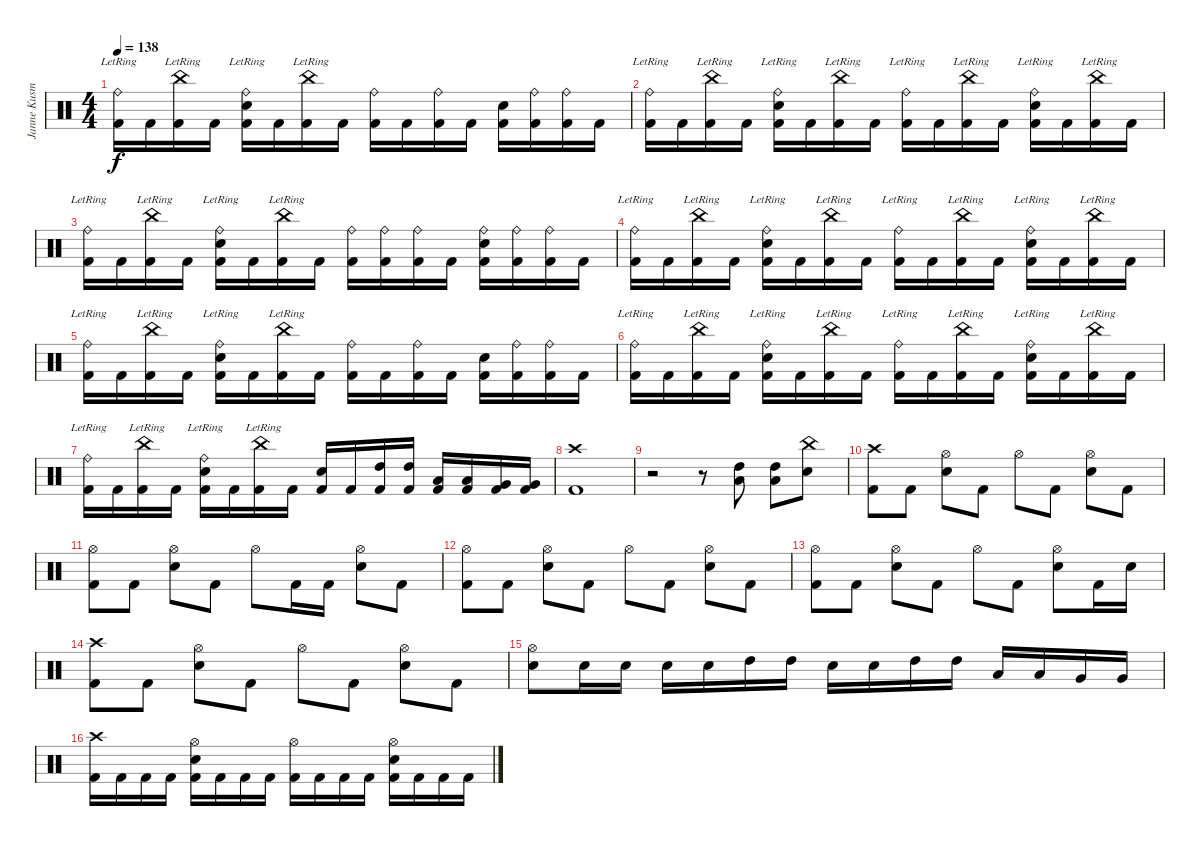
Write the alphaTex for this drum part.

\track ("Janne Kusmin" "Janne Kusm") {instrument percussion}
\staff {score}
\articulation defaults
\ts (4 4)
\tempo 138
\clef neutral
\ks c
("Ride (bell)"{lr} "Kick (hit) 2").16{dy f} "Kick (hit) 2".16 ("China (hit)"{lr} "Kick (hit) 2").16 "Kick (hit) 2".16 ("Ride (bell)"{lr} "Electric Snare (hit)" "Kick (hit) 2").16 "Kick (hit) 2".16 ("China (hit)"{lr} "Kick (hit) 2").16 "Kick (hit) 2".16 ("Ride (bell)" "Kick (hit) 2").16 "Kick (hit) 2".16 ("Ride (bell)" "Kick (hit) 2").16 "Kick (hit) 2".16 ("Electric Snare (hit)" "Kick (hit) 2").16 ("Ride (bell)" "Kick (hit) 2").16 ("Ride (bell)" "Kick (hit) 2").16 "Kick (hit) 2".16 |
("Ride (bell)"{lr} "Kick (hit) 2").16 "Kick (hit) 2".16 ("China (hit)"{lr} "Kick (hit) 2").16 "Kick (hit) 2".16 ("Ride (bell)"{lr} "Electric Snare (hit)" "Kick (hit) 2").16 "Kick (hit) 2".16 ("China (hit)"{lr} "Kick (hit) 2").16 "Kick (hit) 2".16 ("Ride (bell)"{lr} "Kick (hit) 2").16 "Kick (hit) 2".16 ("China (hit)"{lr} "Kick (hit) 2").16 "Kick (hit) 2".16 ("Ride (bell)"{lr} "Electric Snare (hit)" "Kick (hit) 2").16 "Kick (hit) 2".16 ("China (hit)"{lr} "Kick (hit) 2").16 "Kick (hit) 2".16 |
("Ride (bell)"{lr} "Kick (hit) 2").16 "Kick (hit) 2".16 ("China (hit)"{lr} "Kick (hit) 2").16 "Kick (hit) 2".16 ("Ride (bell)"{lr} "Electric Snare (hit)" "Kick (hit) 2").16 "Kick (hit) 2".16 ("China (hit)"{lr} "Kick (hit) 2").16 "Kick (hit) 2".16 ("Ride (bell)" "Kick (hit) 2").16 ("Ride (bell)" "Kick (hit) 2").16 ("Ride (bell)" "Kick (hit) 2").16 "Kick (hit) 2".16 ("Ride (bell)" "Electric Snare (hit)" "Kick (hit) 2").16 ("Ride (bell)" "Kick (hit) 2").16 ("Ride (bell)" "Kick (hit) 2").16 "Kick (hit) 2".16 |
("Ride (bell)"{lr} "Kick (hit) 2").16 "Kick (hit) 2".16 ("China (hit)"{lr} "Kick (hit) 2").16 "Kick (hit) 2".16 ("Ride (bell)"{lr} "Electric Snare (hit)" "Kick (hit) 2").16 "Kick (hit) 2".16 ("China (hit)"{lr} "Kick (hit) 2").16 "Kick (hit) 2".16 ("Ride (bell)"{lr} "Kick (hit) 2").16 "Kick (hit) 2".16 ("China (hit)"{lr} "Kick (hit) 2").16 "Kick (hit) 2".16 ("Ride (bell)"{lr} "Electric Snare (hit)" "Kick (hit) 2").16 "Kick (hit) 2".16 ("China (hit)"{lr} "Kick (hit) 2").16 "Kick (hit) 2".16 |
("Ride (bell)"{lr} "Kick (hit) 2").16 "Kick (hit) 2".16 ("China (hit)"{lr} "Kick (hit) 2").16 "Kick (hit) 2".16 ("Ride (bell)"{lr} "Electric Snare (hit)" "Kick (hit) 2").16 "Kick (hit) 2".16 ("China (hit)"{lr} "Kick (hit) 2").16 "Kick (hit) 2".16 ("Ride (bell)" "Kick (hit) 2").16 "Kick (hit) 2".16 ("Ride (bell)" "Kick (hit) 2").16 "Kick (hit) 2".16 ("Electric Snare (hit)" "Kick (hit) 2").16 ("Ride (bell)" "Kick (hit) 2").16 ("Ride (bell)" "Kick (hit) 2").16 "Kick (hit) 2".16 |
("Ride (bell)"{lr} "Kick (hit) 2").16 "Kick (hit) 2".16 ("China (hit)"{lr} "Kick (hit) 2").16 "Kick (hit) 2".16 ("Ride (bell)"{lr} "Electric Snare (hit)" "Kick (hit) 2").16 "Kick (hit) 2".16 ("China (hit)"{lr} "Kick (hit) 2").16 "Kick (hit) 2".16 ("Ride (bell)"{lr} "Kick (hit) 2").16 "Kick (hit) 2".16 ("China (hit)"{lr} "Kick (hit) 2").16 "Kick (hit) 2".16 ("Ride (bell)"{lr} "Electric Snare (hit)" "Kick (hit) 2").16 "Kick (hit) 2".16 ("China (hit)"{lr} "Kick (hit) 2").16 "Kick (hit) 2".16 |
("Ride (bell)"{lr} "Kick (hit) 2").16 "Kick (hit) 2".16 ("China (hit)"{lr} "Kick (hit) 2").16 "Kick (hit) 2".16 ("Ride (bell)"{lr} "Electric Snare (hit)" "Kick (hit) 2").16 "Kick (hit) 2".16 ("China (hit)"{lr} "Kick (hit) 2").16 "Kick (hit) 2".16 ("Electric Snare (hit)" "Kick (hit) 2").16 "Kick (hit) 2".16 ("High Tom (hit)" "Kick (hit) 2").16 ("High Tom (hit)" "Kick (hit) 2").16 ("Low Tom (hit)" "Kick (hit) 2").16 ("Low Tom (hit)" "Kick (hit) 2").16 ("Very Low Tom (hit)" "Kick (hit) 2").16 ("Very Low Tom (hit)" "Kick (hit) 2").16 |
("Crash high (hit)" "Kick (hit) 2").1 |
r.2 r.8 ("High Tom (hit)" "Low Floor Tom (hit)").8 ("High Tom (hit)" "Low Floor Tom (hit)").8 ("China (hit)" "Electric Snare (hit)").8 |
("Crash high (hit)" "Kick (hit) 2").8 "Kick (hit) 2".8 ("Hi-Hat (open)" "Electric Snare (hit)").8 "Kick (hit) 2".8 "Hi-Hat (open)".8 "Kick (hit) 2".8 ("Hi-Hat (open)" "Electric Snare (hit)").8 "Kick (hit) 2".8 |
("Hi-Hat (open)" "Kick (hit) 2").8 "Kick (hit) 2".8 ("Hi-Hat (open)" "Electric Snare (hit)").8 "Kick (hit) 2".8 "Hi-Hat (open)".8 "Kick (hit) 2".16 "Kick (hit) 2".16 ("Hi-Hat (open)" "Electric Snare (hit)").8 "Kick (hit) 2".8 |
("Hi-Hat (open)" "Kick (hit) 2").8 "Kick (hit) 2".8 ("Hi-Hat (open)" "Electric Snare (hit)").8 "Kick (hit) 2".8 "Hi-Hat (open)".8 "Kick (hit) 2".8 ("Hi-Hat (open)" "Electric Snare (hit)").8 "Kick (hit) 2".8 |
("Hi-Hat (open)" "Kick (hit) 2").8 "Kick (hit) 2".8 ("Hi-Hat (open)" "Electric Snare (hit)").8 "Kick (hit) 2".8 "Hi-Hat (open)".8 "Kick (hit) 2".8 ("Hi-Hat (open)" "Electric Snare (hit)").8 "Kick (hit) 2".16 "Electric Snare (hit)".16 |
("Crash high (hit)" "Kick (hit) 2").8 "Kick (hit) 2".8 ("Hi-Hat (open)" "Electric Snare (hit)").8 "Kick (hit) 2".8 "Hi-Hat (open)".8 "Kick (hit) 2".8 ("Hi-Hat (open)" "Electric Snare (hit)").8 "Kick (hit) 2".8 |
("Hi-Hat (open)" "Electric Snare (hit)").8 "Electric Snare (hit)".16 "Electric Snare (hit)".16 "Electric Snare (hit)".16 "Electric Snare (hit)".16 "High Tom (hit)".16 "High Tom (hit)".16 "Electric Snare (hit)".16 "Electric Snare (hit)".16 "High Tom (hit)".16 "High Tom (hit)".16 "Low Tom (hit)".16 "Low Tom (hit)".16 "Very Low Tom (hit)".16 "Very Low Tom (hit)".16 |
("Crash high (hit)" "Kick (hit) 2").16 "Kick (hit) 2".16 "Kick (hit) 2".16 "Kick (hit) 2".16 ("Hi-Hat (open)" "Electric Snare (hit)" "Kick (hit) 2").16 "Kick (hit) 2".16 "Kick (hit) 2".16 "Kick (hit) 2".16 ("Hi-Hat (open)" "Kick (hit) 2").16 "Kick (hit) 2".16 "Kick (hit) 2".16 "Kick (hit) 2".16 ("Hi-Hat (open)" "Electric Snare (hit)" "Kick (hit) 2").16 "Kick (hit) 2".16 "Kick (hit) 2".16 "Kick (hit) 2".16
